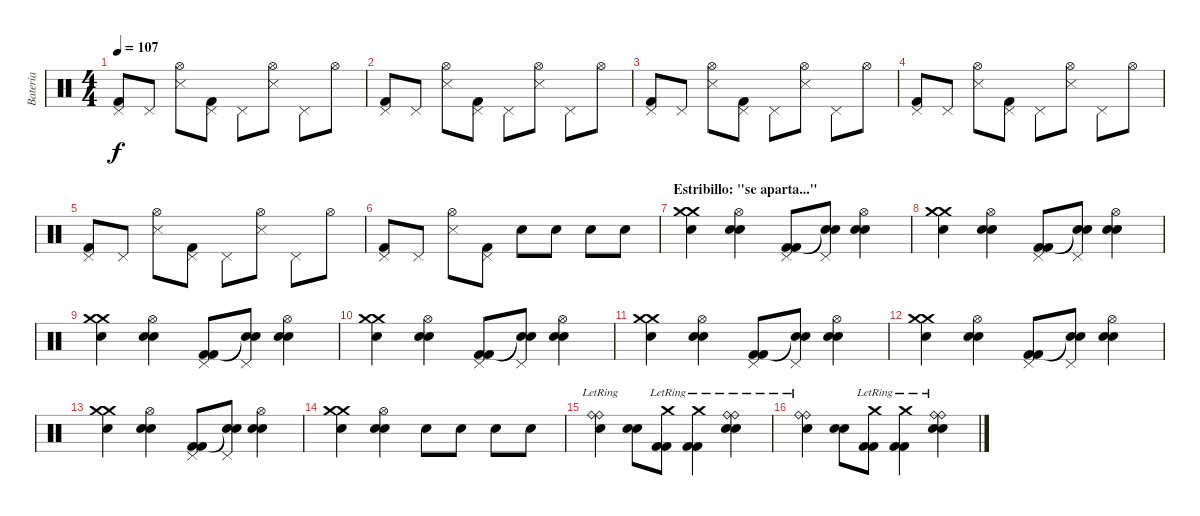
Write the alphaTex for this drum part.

\track ("Bateria" "Bateria") {instrument percussion}
\staff {score}
\articulation defaults
\ts (4 4)
\tempo 107
\clef neutral
\ks c
("Kick (hit) 2" "Pedal Hi-Hat (hit)").8{dy f} "Pedal Hi-Hat (hit)".8 ("Hi-Hat (open)" "Snare (side stick) 3").8 ("Kick (hit) 2" "Pedal Hi-Hat (hit)").8 "Pedal Hi-Hat (hit)".8 ("Snare (side stick) 3" "Hi-Hat (open)").8 "Pedal Hi-Hat (hit)".8 "Hi-Hat (open)".8 |
("Kick (hit) 2" "Pedal Hi-Hat (hit)").8 "Pedal Hi-Hat (hit)".8 ("Hi-Hat (open)" "Snare (side stick) 3").8 ("Kick (hit) 2" "Pedal Hi-Hat (hit)").8 "Pedal Hi-Hat (hit)".8 ("Snare (side stick) 3" "Hi-Hat (open)").8 "Pedal Hi-Hat (hit)".8 "Hi-Hat (open)".8 |
("Kick (hit) 2" "Pedal Hi-Hat (hit)").8 "Pedal Hi-Hat (hit)".8 ("Hi-Hat (open)" "Snare (side stick) 3").8 ("Kick (hit) 2" "Pedal Hi-Hat (hit)").8 "Pedal Hi-Hat (hit)".8 ("Snare (side stick) 3" "Hi-Hat (open)").8 "Pedal Hi-Hat (hit)".8 "Hi-Hat (open)".8 |
("Kick (hit) 2" "Pedal Hi-Hat (hit)").8 "Pedal Hi-Hat (hit)".8 ("Hi-Hat (open)" "Snare (side stick) 3").8 ("Kick (hit) 2" "Pedal Hi-Hat (hit)").8 "Pedal Hi-Hat (hit)".8 ("Snare (side stick) 3" "Hi-Hat (open)").8 "Pedal Hi-Hat (hit)".8 "Hi-Hat (open)".8 |
("Kick (hit) 2" "Pedal Hi-Hat (hit)").8 "Pedal Hi-Hat (hit)".8 ("Hi-Hat (open)" "Snare (side stick) 3").8 ("Kick (hit) 2" "Pedal Hi-Hat (hit)").8 "Pedal Hi-Hat (hit)".8 ("Snare (side stick) 3" "Hi-Hat (open)").8 "Pedal Hi-Hat (hit)".8 "Hi-Hat (open)".8 |
("Kick (hit) 2" "Pedal Hi-Hat (hit)").8 "Pedal Hi-Hat (hit)".8 ("Snare (side stick) 3" "Hi-Hat (open)").8 ("Kick (hit) 2" "Pedal Hi-Hat (hit)").8 "Snare (hit) 2".8 "Snare (hit) 2".8{volume 12} "Snare (hit) 2".8{volume 14} "Snare (hit) 2".8{volume 16} |
\section ("" "Estribillo: \"se aparta...\"")
("Crash medium (hit)" "Crash medium (hit)" "Snare (hit) 2").4 ("Hi-Hat (open)" "Snare (hit) 2" "Snare (hit) 2").4 ("Pedal Hi-Hat (hit)" "Kick (hit) 2" "Kick (hit) 2").8 ("Pedal Hi-Hat (hit)" "Snare (hit)"{t} "Snare (hit)"{t}).8 ("Hi-Hat (open)" "Snare (hit) 2" "Snare (hit) 2").4 |
("Crash medium (hit)" "Crash medium (hit)" "Snare (hit) 2").4 ("Hi-Hat (open)" "Snare (hit) 2" "Snare (hit) 2").4 ("Pedal Hi-Hat (hit)" "Kick (hit) 2" "Kick (hit) 2").8 ("Pedal Hi-Hat (hit)" "Snare (hit)"{t} "Snare (hit)"{t}).8 ("Hi-Hat (open)" "Snare (hit) 2" "Snare (hit) 2").4 |
("Crash medium (hit)" "Crash medium (hit)" "Snare (hit) 2").4 ("Hi-Hat (open)" "Snare (hit) 2" "Snare (hit) 2").4 ("Pedal Hi-Hat (hit)" "Kick (hit) 2" "Kick (hit) 2").8 ("Pedal Hi-Hat (hit)" "Snare (hit)"{t} "Snare (hit)"{t}).8 ("Hi-Hat (open)" "Snare (hit) 2" "Snare (hit) 2").4 |
("Crash medium (hit)" "Crash medium (hit)" "Snare (hit) 2").4 ("Hi-Hat (open)" "Snare (hit) 2" "Snare (hit) 2").4 ("Pedal Hi-Hat (hit)" "Kick (hit) 2" "Kick (hit) 2").8 ("Pedal Hi-Hat (hit)" "Snare (hit)"{t} "Snare (hit)"{t}).8 ("Hi-Hat (open)" "Snare (hit) 2" "Snare (hit) 2").4 |
("Crash medium (hit)" "Crash medium (hit)" "Snare (hit) 2").4 ("Hi-Hat (open)" "Snare (hit) 2" "Snare (hit) 2").4 ("Pedal Hi-Hat (hit)" "Kick (hit) 2" "Kick (hit) 2").8 ("Pedal Hi-Hat (hit)" "Snare (hit)"{t} "Snare (hit)"{t}).8 ("Hi-Hat (open)" "Snare (hit) 2" "Snare (hit) 2").4 |
("Crash medium (hit)" "Crash medium (hit)" "Snare (hit) 2").4 ("Hi-Hat (open)" "Snare (hit) 2" "Snare (hit) 2").4 ("Pedal Hi-Hat (hit)" "Kick (hit) 2" "Kick (hit) 2").8 ("Pedal Hi-Hat (hit)" "Snare (hit)"{t} "Snare (hit)"{t}).8 ("Hi-Hat (open)" "Snare (hit) 2" "Snare (hit) 2").4 |
("Crash medium (hit)" "Crash medium (hit)" "Snare (hit) 2").4 ("Hi-Hat (open)" "Snare (hit) 2" "Snare (hit) 2").4 ("Pedal Hi-Hat (hit)" "Kick (hit) 2" "Kick (hit) 2").8 ("Pedal Hi-Hat (hit)" "Snare (hit)"{t} "Snare (hit)"{t}).8 ("Hi-Hat (open)" "Snare (hit) 2" "Snare (hit) 2").4 |
("Crash medium (hit)" "Crash medium (hit)" "Snare (hit) 2").4 ("Hi-Hat (open)" "Snare (hit) 2" "Snare (hit) 2").4 "Snare (hit) 2".8 "Snare (hit) 2".8 "Snare (hit) 2".8 "Snare (hit) 2".8 |
("Ride (bell)"{lr} "Snare (hit) 2" "Ride (bell)").4 ("Snare (hit) 2" "Snare (hit) 2").8 ("Crash medium (hit)"{lr} "Kick (hit) 2" "Kick (hit) 2").8 ("Crash medium (hit)"{lr} "Kick (hit) 2" "Kick (hit) 2").4 ("Ride (bell)"{lr} "Snare (hit) 2" "Snare (hit) 2" "Ride (bell)").4 |
("Ride (bell)"{lr} "Snare (hit) 2" "Ride (bell)").4 ("Snare (hit) 2" "Snare (hit) 2").8 ("Crash medium (hit)"{lr} "Kick (hit) 2" "Kick (hit) 2").8 ("Crash medium (hit)"{lr} "Kick (hit) 2" "Kick (hit) 2").4 ("Ride (bell)"{lr} "Snare (hit) 2" "Snare (hit) 2" "Ride (bell)").4
